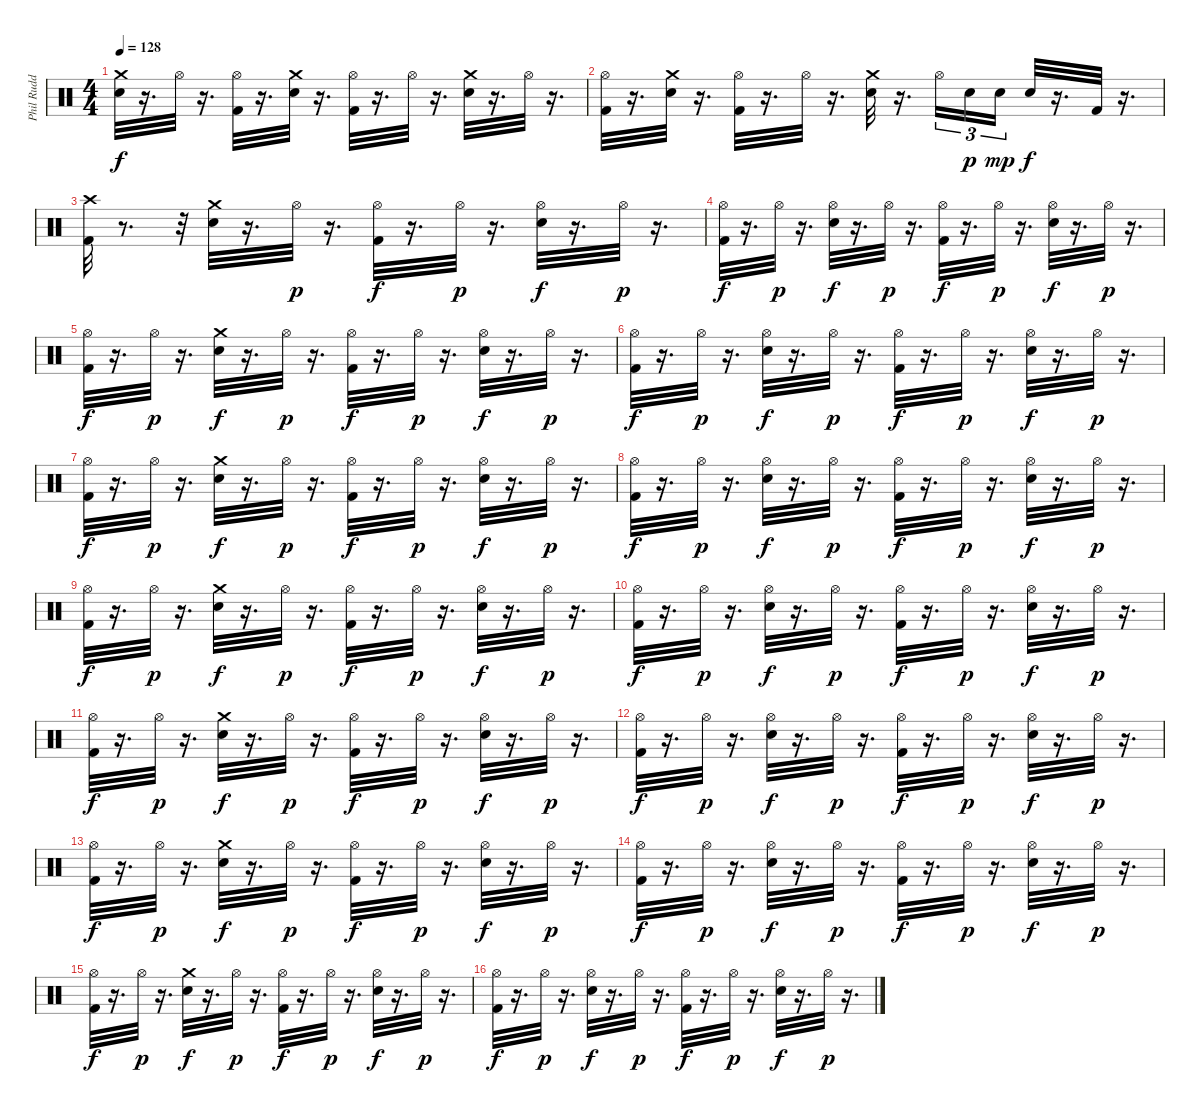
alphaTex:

\track ("Phil Rudd" "Phil Rudd") {instrument percussion}
\staff {score}
\articulation defaults
\ts (4 4)
\tempo 128
\clef neutral
\ks c
("Crash medium (hit)" "Electric Snare (hit)").32{dy f} r.16{d} "Hi-Hat (open)".32 r.16{d} ("Hi-Hat (open)" "Kick (hit) 2").32 r.16{d} ("Crash medium (hit)" "Electric Snare (hit)").32 r.16{d} ("Hi-Hat (open)" "Kick (hit) 2").32 r.16{d} "Hi-Hat (open)".32 r.16{d} ("Crash medium (hit)" "Electric Snare (hit)").32 r.16{d} "Hi-Hat (open)".32 r.16{d} |
("Hi-Hat (open)" "Kick (hit) 2").32 r.16{d} ("Crash medium (hit)" "Electric Snare (hit)").32 r.16{d} ("Hi-Hat (open)" "Kick (hit) 2").32 r.16{d} "Hi-Hat (open)".32 r.16{d} ("Crash medium (hit)" "Electric Snare (hit)").32 r.16{d} "Hi-Hat (open)".16{tu (3 2)} "Electric Snare (hit)".16{tu (3 2) dy p} "Electric Snare (hit)".16{tu (3 2) dy mp} "Electric Snare (hit)".32{dy f} r.16{d} "Kick (hit) 2".32 r.16{d} |
("Crash high (hit)" "Kick (hit) 2").32 r.8{d} r.32 ("Crash medium (hit)" "Electric Snare (hit)").32 r.16{d} "Hi-Hat (open)".32{dy p} r.16{d} ("Hi-Hat (open)" "Kick (hit) 2").32{dy f} r.16{d} "Hi-Hat (open)".32{dy p} r.16{d} ("Hi-Hat (open)" "Electric Snare (hit)").32{dy f} r.16{d} "Hi-Hat (open)".32{dy p} r.16{d} |
("Hi-Hat (open)" "Kick (hit) 2").32{dy f} r.16{d} "Hi-Hat (open)".32{dy p} r.16{d} ("Hi-Hat (open)" "Electric Snare (hit)").32{dy f} r.16{d} "Hi-Hat (open)".32{dy p} r.16{d} ("Hi-Hat (open)" "Kick (hit) 2").32{dy f} r.16{d} "Hi-Hat (open)".32{dy p} r.16{d} ("Hi-Hat (open)" "Electric Snare (hit)").32{dy f} r.16{d} "Hi-Hat (open)".32{dy p} r.16{d} |
("Hi-Hat (open)" "Kick (hit) 2").32{dy f} r.16{d} "Hi-Hat (open)".32{dy p} r.16{d} ("Crash medium (hit)" "Electric Snare (hit)").32{dy f} r.16{d} "Hi-Hat (open)".32{dy p} r.16{d} ("Hi-Hat (open)" "Kick (hit) 2").32{dy f} r.16{d} "Hi-Hat (open)".32{dy p} r.16{d} ("Hi-Hat (open)" "Electric Snare (hit)").32{dy f} r.16{d} "Hi-Hat (open)".32{dy p} r.16{d} |
("Hi-Hat (open)" "Kick (hit) 2").32{dy f} r.16{d} "Hi-Hat (open)".32{dy p} r.16{d} ("Hi-Hat (open)" "Electric Snare (hit)").32{dy f} r.16{d} "Hi-Hat (open)".32{dy p} r.16{d} ("Hi-Hat (open)" "Kick (hit) 2").32{dy f} r.16{d} "Hi-Hat (open)".32{dy p} r.16{d} ("Hi-Hat (open)" "Electric Snare (hit)").32{dy f} r.16{d} "Hi-Hat (open)".32{dy p} r.16{d} |
("Hi-Hat (open)" "Kick (hit) 2").32{dy f} r.16{d} "Hi-Hat (open)".32{dy p} r.16{d} ("Crash medium (hit)" "Electric Snare (hit)").32{dy f} r.16{d} "Hi-Hat (open)".32{dy p} r.16{d} ("Hi-Hat (open)" "Kick (hit) 2").32{dy f} r.16{d} "Hi-Hat (open)".32{dy p} r.16{d} ("Hi-Hat (open)" "Electric Snare (hit)").32{dy f} r.16{d} "Hi-Hat (open)".32{dy p} r.16{d} |
("Hi-Hat (open)" "Kick (hit) 2").32{dy f} r.16{d} "Hi-Hat (open)".32{dy p} r.16{d} ("Hi-Hat (open)" "Electric Snare (hit)").32{dy f} r.16{d} "Hi-Hat (open)".32{dy p} r.16{d} ("Hi-Hat (open)" "Kick (hit) 2").32{dy f} r.16{d} "Hi-Hat (open)".32{dy p} r.16{d} ("Hi-Hat (open)" "Electric Snare (hit)").32{dy f} r.16{d} "Hi-Hat (open)".32{dy p} r.16{d} |
("Hi-Hat (open)" "Kick (hit) 2").32{dy f} r.16{d} "Hi-Hat (open)".32{dy p} r.16{d} ("Crash medium (hit)" "Electric Snare (hit)").32{dy f} r.16{d} "Hi-Hat (open)".32{dy p} r.16{d} ("Hi-Hat (open)" "Kick (hit) 2").32{dy f} r.16{d} "Hi-Hat (open)".32{dy p} r.16{d} ("Hi-Hat (open)" "Electric Snare (hit)").32{dy f} r.16{d} "Hi-Hat (open)".32{dy p} r.16{d} |
("Hi-Hat (open)" "Kick (hit) 2").32{dy f} r.16{d} "Hi-Hat (open)".32{dy p} r.16{d} ("Hi-Hat (open)" "Electric Snare (hit)").32{dy f} r.16{d} "Hi-Hat (open)".32{dy p} r.16{d} ("Hi-Hat (open)" "Kick (hit) 2").32{dy f} r.16{d} "Hi-Hat (open)".32{dy p} r.16{d} ("Hi-Hat (open)" "Electric Snare (hit)").32{dy f} r.16{d} "Hi-Hat (open)".32{dy p} r.16{d} |
("Hi-Hat (open)" "Kick (hit) 2").32{dy f} r.16{d} "Hi-Hat (open)".32{dy p} r.16{d} ("Crash medium (hit)" "Electric Snare (hit)").32{dy f} r.16{d} "Hi-Hat (open)".32{dy p} r.16{d} ("Hi-Hat (open)" "Kick (hit) 2").32{dy f} r.16{d} "Hi-Hat (open)".32{dy p} r.16{d} ("Hi-Hat (open)" "Electric Snare (hit)").32{dy f} r.16{d} "Hi-Hat (open)".32{dy p} r.16{d} |
("Hi-Hat (open)" "Kick (hit) 2").32{dy f} r.16{d} "Hi-Hat (open)".32{dy p} r.16{d} ("Hi-Hat (open)" "Electric Snare (hit)").32{dy f} r.16{d} "Hi-Hat (open)".32{dy p} r.16{d} ("Hi-Hat (open)" "Kick (hit) 2").32{dy f} r.16{d} "Hi-Hat (open)".32{dy p} r.16{d} ("Hi-Hat (open)" "Electric Snare (hit)").32{dy f} r.16{d} "Hi-Hat (open)".32{dy p} r.16{d} |
("Hi-Hat (open)" "Kick (hit) 2").32{dy f} r.16{d} "Hi-Hat (open)".32{dy p} r.16{d} ("Crash medium (hit)" "Electric Snare (hit)").32{dy f} r.16{d} "Hi-Hat (open)".32{dy p} r.16{d} ("Hi-Hat (open)" "Kick (hit) 2").32{dy f} r.16{d} "Hi-Hat (open)".32{dy p} r.16{d} ("Hi-Hat (open)" "Electric Snare (hit)").32{dy f} r.16{d} "Hi-Hat (open)".32{dy p} r.16{d} |
("Hi-Hat (open)" "Kick (hit) 2").32{dy f} r.16{d} "Hi-Hat (open)".32{dy p} r.16{d} ("Hi-Hat (open)" "Electric Snare (hit)").32{dy f} r.16{d} "Hi-Hat (open)".32{dy p} r.16{d} ("Hi-Hat (open)" "Kick (hit) 2").32{dy f} r.16{d} "Hi-Hat (open)".32{dy p} r.16{d} ("Hi-Hat (open)" "Electric Snare (hit)").32{dy f} r.16{d} "Hi-Hat (open)".32{dy p} r.16{d} |
("Hi-Hat (open)" "Kick (hit) 2").32{dy f} r.16{d} "Hi-Hat (open)".32{dy p} r.16{d} ("Crash medium (hit)" "Electric Snare (hit)").32{dy f} r.16{d} "Hi-Hat (open)".32{dy p} r.16{d} ("Hi-Hat (open)" "Kick (hit) 2").32{dy f} r.16{d} "Hi-Hat (open)".32{dy p} r.16{d} ("Hi-Hat (open)" "Electric Snare (hit)").32{dy f} r.16{d} "Hi-Hat (open)".32{dy p} r.16{d} |
("Hi-Hat (open)" "Kick (hit) 2").32{dy f} r.16{d} "Hi-Hat (open)".32{dy p} r.16{d} ("Hi-Hat (open)" "Electric Snare (hit)").32{dy f} r.16{d} "Hi-Hat (open)".32{dy p} r.16{d} ("Hi-Hat (open)" "Kick (hit) 2").32{dy f} r.16{d} "Hi-Hat (open)".32{dy p} r.16{d} ("Hi-Hat (open)" "Electric Snare (hit)").32{dy f} r.16{d} "Hi-Hat (open)".32{dy p} r.16{d}
